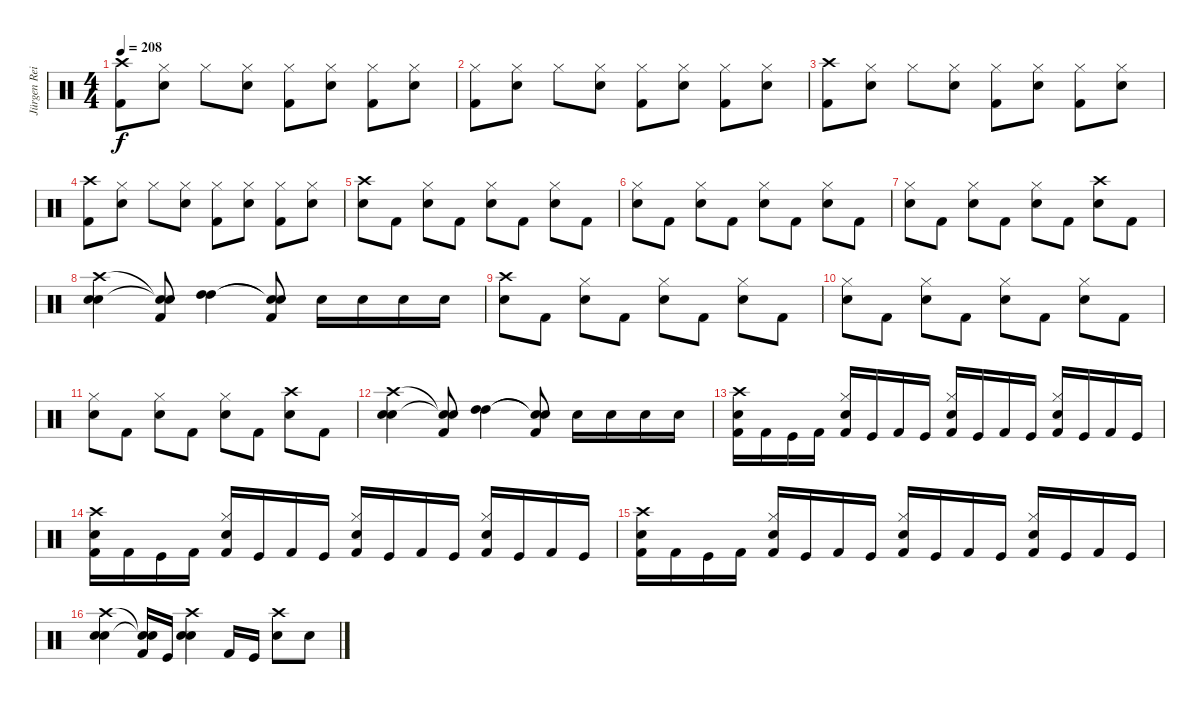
\track ("Jürgen Reil" "Jürgen Rei") {instrument percussion}
\staff {score}
\articulation defaults
\ts (4 4)
\tempo 208
\clef neutral
\ks c
("Crash high (hit)" "Kick (hit) 2").8{dy f} ("Hi-Hat (closed)" "Electric Snare (hit)").8 "Hi-Hat (closed)".8 ("Hi-Hat (closed)" "Electric Snare (hit)").8 ("Hi-Hat (closed)" "Kick (hit) 2").8 ("Hi-Hat (closed)" "Electric Snare (hit)").8 ("Hi-Hat (closed)" "Kick (hit) 2").8 ("Hi-Hat (closed)" "Electric Snare (hit)").8 |
("Hi-Hat (closed)" "Kick (hit) 2").8 ("Hi-Hat (closed)" "Electric Snare (hit)").8 "Hi-Hat (closed)".8 ("Hi-Hat (closed)" "Electric Snare (hit)").8 ("Hi-Hat (closed)" "Kick (hit) 2").8 ("Hi-Hat (closed)" "Electric Snare (hit)").8 ("Hi-Hat (closed)" "Kick (hit) 2").8 ("Hi-Hat (closed)" "Electric Snare (hit)").8 |
("Crash high (hit)" "Kick (hit) 2").8 ("Hi-Hat (closed)" "Electric Snare (hit)").8 "Hi-Hat (closed)".8 ("Hi-Hat (closed)" "Electric Snare (hit)").8 ("Hi-Hat (closed)" "Kick (hit) 2").8 ("Hi-Hat (closed)" "Electric Snare (hit)").8 ("Hi-Hat (closed)" "Kick (hit) 2").8 ("Hi-Hat (closed)" "Electric Snare (hit)").8 |
("Crash high (hit)" "Kick (hit) 2").8 ("Hi-Hat (closed)" "Electric Snare (hit)").8 "Hi-Hat (closed)".8 ("Hi-Hat (closed)" "Electric Snare (hit)").8 ("Hi-Hat (closed)" "Kick (hit) 2").8 ("Hi-Hat (closed)" "Electric Snare (hit)").8 ("Hi-Hat (closed)" "Kick (hit) 2").8 ("Hi-Hat (closed)" "Electric Snare (hit)").8 |
("Crash high (hit)" "Electric Snare (hit)").8 "Kick (hit) 2".8 ("Hi-Hat (closed)" "Electric Snare (hit)").8 "Kick (hit) 2".8 ("Hi-Hat (closed)" "Electric Snare (hit)").8 "Kick (hit) 2".8 ("Hi-Hat (closed)" "Electric Snare (hit)").8 "Kick (hit) 2".8 |
("Hi-Hat (closed)" "Electric Snare (hit)").8 "Kick (hit) 2".8 ("Hi-Hat (closed)" "Electric Snare (hit)").8 "Kick (hit) 2".8 ("Hi-Hat (closed)" "Electric Snare (hit)").8 "Kick (hit) 2".8 ("Hi-Hat (closed)" "Electric Snare (hit)").8 "Kick (hit) 2".8 |
("Hi-Hat (closed)" "Electric Snare (hit)").8 "Kick (hit) 2".8 ("Hi-Hat (closed)" "Electric Snare (hit)").8 "Kick (hit) 2".8 ("Hi-Hat (closed)" "Electric Snare (hit)").8 "Kick (hit) 2".8 ("Crash high (hit)" "Electric Snare (hit)").8 "Kick (hit) 2".8 |
("Crash high (hit)" "Electric Snare (hit)" "Electric Snare (hit)").4 ("Snare (hit)"{t} "Snare (hit)"{t} "Kick (hit) 2").8 ("High Tom (hit)" "High Tom (hit)").4 ("Snare (hit)"{t} "Snare (hit)"{t} "Kick (hit) 2").8 "Electric Snare (hit)".16 "Electric Snare (hit)".16 "Electric Snare (hit)".16 "Electric Snare (hit)".16 |
("Crash high (hit)" "Electric Snare (hit)").8 "Kick (hit) 2".8 ("Hi-Hat (closed)" "Electric Snare (hit)").8 "Kick (hit) 2".8 ("Hi-Hat (closed)" "Electric Snare (hit)").8 "Kick (hit) 2".8 ("Hi-Hat (closed)" "Electric Snare (hit)").8 "Kick (hit) 2".8 |
("Hi-Hat (closed)" "Electric Snare (hit)").8 "Kick (hit) 2".8 ("Hi-Hat (closed)" "Electric Snare (hit)").8 "Kick (hit) 2".8 ("Hi-Hat (closed)" "Electric Snare (hit)").8 "Kick (hit) 2".8 ("Hi-Hat (closed)" "Electric Snare (hit)").8 "Kick (hit) 2".8 |
("Hi-Hat (closed)" "Electric Snare (hit)").8 "Kick (hit) 2".8 ("Hi-Hat (closed)" "Electric Snare (hit)").8 "Kick (hit) 2".8 ("Hi-Hat (closed)" "Electric Snare (hit)").8 "Kick (hit) 2".8 ("Crash high (hit)" "Electric Snare (hit)").8 "Kick (hit) 2".8 |
("Crash high (hit)" "Electric Snare (hit)" "Electric Snare (hit)").4 ("Snare (hit)"{t} "Snare (hit)"{t} "Kick (hit) 2").8 ("High Tom (hit)" "High Tom (hit)").4 ("Snare (hit)"{t} "Snare (hit)"{t} "Kick (hit) 2").8 "Electric Snare (hit)".16 "Electric Snare (hit)".16 "Electric Snare (hit)".16 "Electric Snare (hit)".16 |
("Crash high (hit)" "Electric Snare (hit)" "Kick (hit) 2").16 "Kick (hit) 2".16 "Kick (hit)".16 "Kick (hit) 2".16 ("Hi-Hat (closed)" "Electric Snare (hit)" "Kick (hit) 2").16 "Kick (hit)".16 "Kick (hit) 2".16 "Kick (hit)".16 ("Hi-Hat (closed)" "Electric Snare (hit)" "Kick (hit) 2").16 "Kick (hit)".16 "Kick (hit) 2".16 "Kick (hit)".16 ("Hi-Hat (closed)" "Electric Snare (hit)" "Kick (hit) 2").16 "Kick (hit)".16 "Kick (hit) 2".16 "Kick (hit)".16 |
("Crash high (hit)" "Electric Snare (hit)" "Kick (hit) 2").16 "Kick (hit) 2".16 "Kick (hit)".16 "Kick (hit) 2".16 ("Hi-Hat (closed)" "Electric Snare (hit)" "Kick (hit) 2").16 "Kick (hit)".16 "Kick (hit) 2".16 "Kick (hit)".16 ("Hi-Hat (closed)" "Electric Snare (hit)" "Kick (hit) 2").16 "Kick (hit)".16 "Kick (hit) 2".16 "Kick (hit)".16 ("Hi-Hat (closed)" "Electric Snare (hit)" "Kick (hit) 2").16 "Kick (hit)".16 "Kick (hit) 2".16 "Kick (hit)".16 |
("Crash high (hit)" "Electric Snare (hit)" "Kick (hit) 2").16 "Kick (hit) 2".16 "Kick (hit)".16 "Kick (hit) 2".16 ("Hi-Hat (closed)" "Electric Snare (hit)" "Kick (hit) 2").16 "Kick (hit)".16 "Kick (hit) 2".16 "Kick (hit)".16 ("Hi-Hat (closed)" "Electric Snare (hit)" "Kick (hit) 2").16 "Kick (hit)".16 "Kick (hit) 2".16 "Kick (hit)".16 ("Hi-Hat (closed)" "Electric Snare (hit)" "Kick (hit) 2").16 "Kick (hit)".16 "Kick (hit) 2".16 "Kick (hit)".16 |
("Crash high (hit)" "Electric Snare (hit)" "Electric Snare (hit)").4 ("Snare (hit)"{t} "Snare (hit)"{t} "Kick (hit) 2").16 "Kick (hit)".16 ("Crash high (hit)" "Electric Snare (hit)" "Electric Snare (hit)").4 "Kick (hit) 2".16 "Kick (hit)".16 ("Crash high (hit)" "Electric Snare (hit)").8 "Electric Snare (hit)".8
